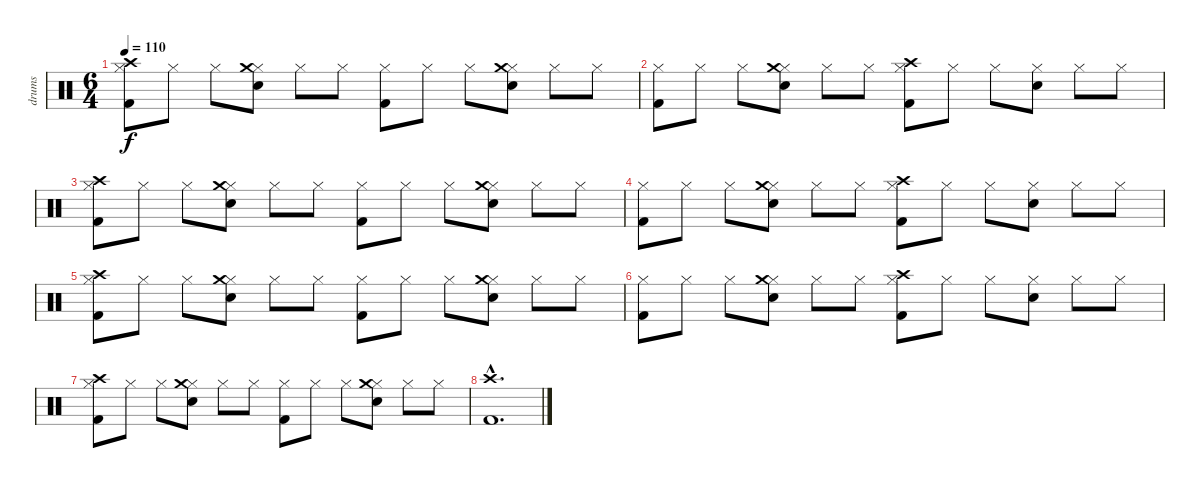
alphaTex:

\track ("drums" "drums") {instrument percussion}
\staff {score}
\articulation defaults
\ts (6 4)
\tempo 110
\clef neutral
\ks c
("Hi-Hat (closed)" "Kick (hit) 2" "Crash high (hit)").8{dy f} "Hi-Hat (closed)".8 "Hi-Hat (closed)".8 ("Hi-Hat (closed)" "Snare (hit) 2" "Crash medium (hit)").8 "Hi-Hat (closed)".8 "Hi-Hat (closed)".8 ("Hi-Hat (closed)" "Kick (hit) 2").8 "Hi-Hat (closed)".8 "Hi-Hat (closed)".8 ("Hi-Hat (closed)" "Snare (hit) 2" "Crash medium (hit)").8 "Hi-Hat (closed)".8 "Hi-Hat (closed)".8 |
("Hi-Hat (closed)" "Kick (hit) 2").8 "Hi-Hat (closed)".8 "Hi-Hat (closed)".8 ("Hi-Hat (closed)" "Snare (hit) 2" "Crash medium (hit)").8 "Hi-Hat (closed)".8 "Hi-Hat (closed)".8 ("Hi-Hat (closed)" "Kick (hit) 2" "Crash high (hit)").8 "Hi-Hat (closed)".8 "Hi-Hat (closed)".8 ("Hi-Hat (closed)" "Snare (hit) 2").8 "Hi-Hat (closed)".8 "Hi-Hat (closed)".8 |
("Hi-Hat (closed)" "Kick (hit) 2" "Crash high (hit)").8 "Hi-Hat (closed)".8 "Hi-Hat (closed)".8 ("Hi-Hat (closed)" "Snare (hit) 2" "Crash medium (hit)").8 "Hi-Hat (closed)".8 "Hi-Hat (closed)".8 ("Hi-Hat (closed)" "Kick (hit) 2").8 "Hi-Hat (closed)".8 "Hi-Hat (closed)".8 ("Hi-Hat (closed)" "Snare (hit) 2" "Crash medium (hit)").8 "Hi-Hat (closed)".8 "Hi-Hat (closed)".8 |
("Hi-Hat (closed)" "Kick (hit) 2").8 "Hi-Hat (closed)".8 "Hi-Hat (closed)".8 ("Hi-Hat (closed)" "Snare (hit) 2" "Crash medium (hit)").8 "Hi-Hat (closed)".8 "Hi-Hat (closed)".8 ("Hi-Hat (closed)" "Kick (hit) 2" "Crash high (hit)").8 "Hi-Hat (closed)".8 "Hi-Hat (closed)".8 ("Hi-Hat (closed)" "Snare (hit) 2").8 "Hi-Hat (closed)".8 "Hi-Hat (closed)".8 |
("Hi-Hat (closed)" "Kick (hit) 2" "Crash high (hit)").8 "Hi-Hat (closed)".8 "Hi-Hat (closed)".8 ("Hi-Hat (closed)" "Snare (hit) 2" "Crash medium (hit)").8 "Hi-Hat (closed)".8 "Hi-Hat (closed)".8 ("Hi-Hat (closed)" "Kick (hit) 2").8 "Hi-Hat (closed)".8 "Hi-Hat (closed)".8 ("Hi-Hat (closed)" "Snare (hit) 2" "Crash medium (hit)").8 "Hi-Hat (closed)".8 "Hi-Hat (closed)".8 |
("Hi-Hat (closed)" "Kick (hit) 2").8 "Hi-Hat (closed)".8 "Hi-Hat (closed)".8 ("Hi-Hat (closed)" "Snare (hit) 2" "Crash medium (hit)").8 "Hi-Hat (closed)".8 "Hi-Hat (closed)".8 ("Hi-Hat (closed)" "Kick (hit) 2" "Crash high (hit)").8 "Hi-Hat (closed)".8 "Hi-Hat (closed)".8 ("Hi-Hat (closed)" "Snare (hit) 2").8 "Hi-Hat (closed)".8 "Hi-Hat (closed)".8 |
("Hi-Hat (closed)" "Kick (hit) 2" "Crash high (hit)").8 "Hi-Hat (closed)".8 "Hi-Hat (closed)".8 ("Hi-Hat (closed)" "Snare (hit) 2" "Crash medium (hit)").8 "Hi-Hat (closed)".8 "Hi-Hat (closed)".8 ("Hi-Hat (closed)" "Kick (hit) 2").8 "Hi-Hat (closed)".8 "Hi-Hat (closed)".8 ("Hi-Hat (closed)" "Snare (hit) 2" "Crash medium (hit)").8 "Hi-Hat (closed)".8 "Hi-Hat (closed)".8 |
("Crash high (hit)"{hac} "Kick (hit) 2"{hac}).1{d}
